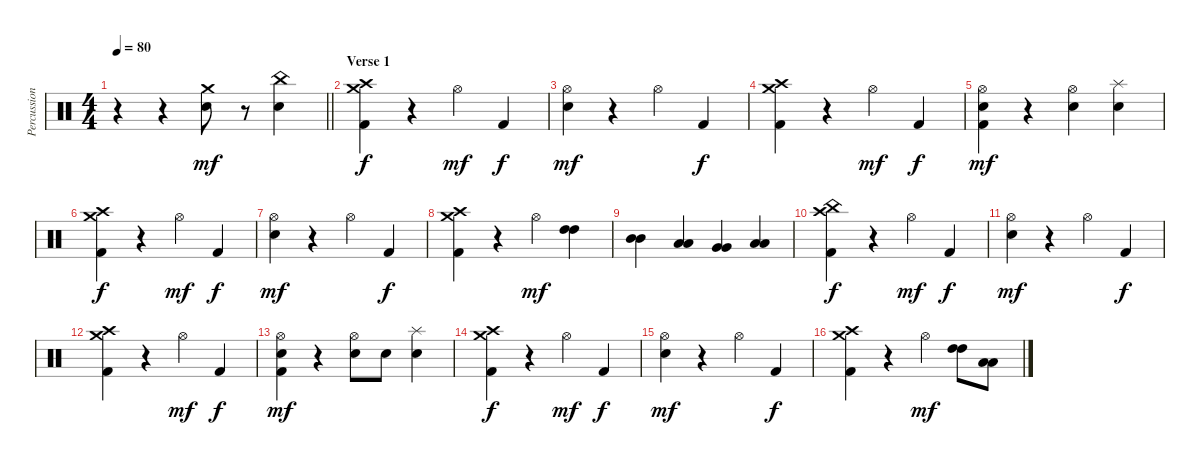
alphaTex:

\track ("Percussioni" "Percussion") {instrument percussion}
\staff {score}
\articulation defaults
\ts (4 4)
\tempo 80
\clef neutral
\barLineRight lightlight
\ks c
r.4{dy mf} r.4 ("Crash medium (hit)" "Snare (hit) 2").8 r.8 ("China (hit)" "Snare (hit) 2").4 |
\section ("" "Verse 1")
("Crash high (hit)" "Crash medium (hit)" "Kick (hit) 2").4{dy f} r.4 "Hi-Hat (open)".4{dy mf} "Kick (hit) 2".4{dy f} |
("Hi-Hat (open)" "Snare (hit) 2").4{dy mf} r.4 "Hi-Hat (open)".4 "Kick (hit) 2".4{dy f} |
("Crash high (hit)" "Crash medium (hit)" "Kick (hit) 2").4 r.4 "Hi-Hat (open)".4{dy mf} "Kick (hit) 2".4{dy f} |
("Hi-Hat (open)" "Snare (hit) 2" "Kick (hit) 2").4{dy mf} r.4 ("Hi-Hat (open)" "Snare (hit) 2").4 ("Splash (hit)" "Snare (hit) 2").4 |
("Crash high (hit)" "Crash medium (hit)" "Kick (hit) 2").4{dy f} r.4 "Hi-Hat (open)".4{dy mf} "Kick (hit) 2".4{dy f} |
("Hi-Hat (open)" "Snare (hit) 2").4{dy mf} r.4 "Hi-Hat (open)".4 "Kick (hit) 2".4{dy f} |
("Crash high (hit)" "Crash medium (hit)" "Kick (hit) 2").4 r.4 "Hi-Hat (open)".4{dy mf} ("High Tom (hit)" "High Tom (hit)").4 |
("Mid Tom (hit)" "Mid Tom (hit)").4 ("Low Tom (hit)" "Low Tom (hit)").4 ("Very Low Tom (hit)" "Very Low Tom (hit)").4 ("Low Floor Tom (hit)" "Low Floor Tom (hit)").4 |
("Crash high (hit)" "China (hit)" "Kick (hit) 2").4{dy f} r.4 "Hi-Hat (open)".4{dy mf} "Kick (hit) 2".4{dy f} |
("Hi-Hat (open)" "Snare (hit) 2").4{dy mf} r.4 "Hi-Hat (open)".4 "Kick (hit) 2".4{dy f} |
("Crash high (hit)" "Crash medium (hit)" "Kick (hit) 2").4 r.4 "Hi-Hat (open)".4{dy mf} "Kick (hit) 2".4{dy f} |
("Hi-Hat (open)" "Snare (hit) 2" "Kick (hit) 2").4{dy mf} r.4 ("Hi-Hat (open)" "Electric Snare (hit)").8 "Electric Snare (hit)".8 ("Splash (hit)" "Electric Snare (hit)").4 |
("Crash high (hit)" "Crash medium (hit)" "Kick (hit) 2").4{dy f} r.4 "Hi-Hat (open)".4{dy mf} "Kick (hit) 2".4{dy f} |
("Hi-Hat (open)" "Snare (hit) 2").4{dy mf} r.4 "Hi-Hat (open)".4 "Kick (hit) 2".4{dy f} |
("Crash high (hit)" "Crash medium (hit)" "Kick (hit) 2").4 r.4 "Hi-Hat (open)".4{dy mf} ("High Tom (hit)" "High Tom (hit)").8 ("Low Tom (hit)" "Low Tom (hit)").8
